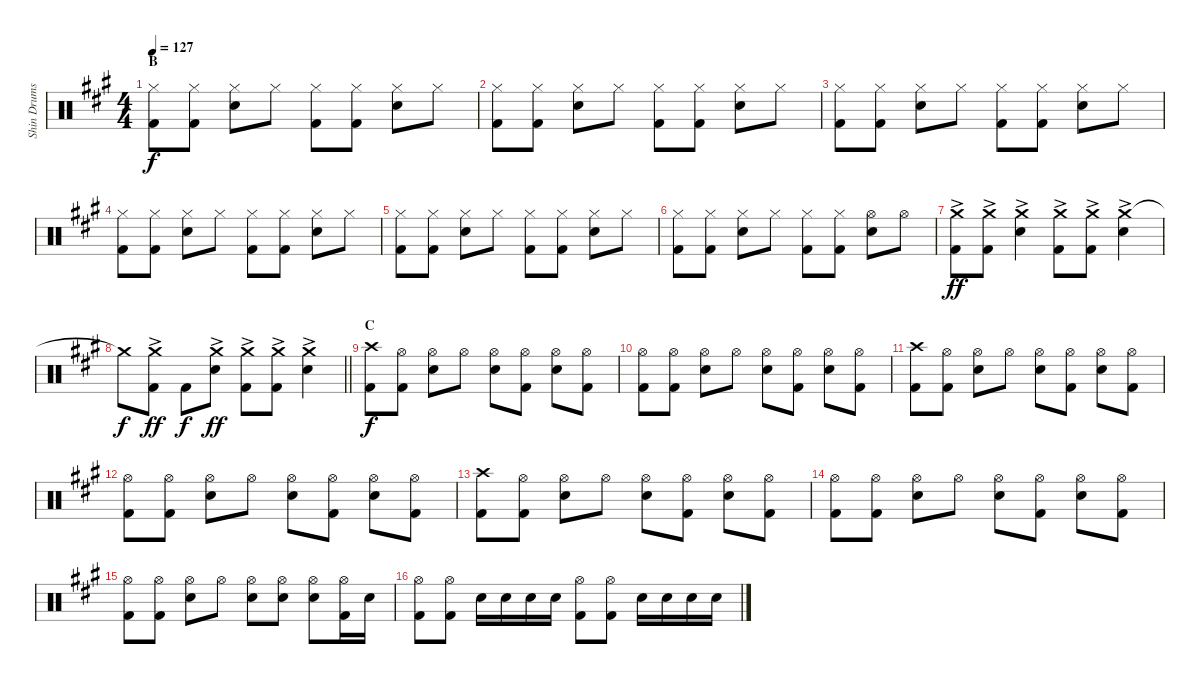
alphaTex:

\track ("Shin Drums" "Shin Drums") {instrument percussion}
\staff {score}
\articulation defaults
\ts (4 4)
\section ("" "B")
\tempo 127
\clef neutral
\ks a
("Hi-Hat (closed)" "Kick (hit) 2").8{dy f} ("Hi-Hat (closed)" "Kick (hit) 2").8 ("Hi-Hat (closed)" "Snare (hit) 2").8 "Hi-Hat (closed)".8 ("Hi-Hat (closed)" "Kick (hit) 2").8 ("Hi-Hat (closed)" "Kick (hit) 2").8 ("Hi-Hat (closed)" "Snare (hit) 2").8 "Hi-Hat (closed)".8 |
("Hi-Hat (closed)" "Kick (hit) 2").8 ("Hi-Hat (closed)" "Kick (hit) 2").8 ("Hi-Hat (closed)" "Snare (hit) 2").8 "Hi-Hat (closed)".8 ("Hi-Hat (closed)" "Kick (hit) 2").8 ("Hi-Hat (closed)" "Kick (hit) 2").8 ("Hi-Hat (closed)" "Snare (hit) 2").8 "Hi-Hat (closed)".8 |
("Hi-Hat (closed)" "Kick (hit) 2").8 ("Hi-Hat (closed)" "Kick (hit) 2").8 ("Hi-Hat (closed)" "Snare (hit) 2").8 "Hi-Hat (closed)".8 ("Hi-Hat (closed)" "Kick (hit) 2").8 ("Hi-Hat (closed)" "Kick (hit) 2").8 ("Hi-Hat (closed)" "Snare (hit) 2").8 "Hi-Hat (closed)".8 |
("Hi-Hat (closed)" "Kick (hit) 2").8 ("Hi-Hat (closed)" "Kick (hit) 2").8 ("Hi-Hat (closed)" "Snare (hit) 2").8 "Hi-Hat (closed)".8 ("Hi-Hat (closed)" "Kick (hit) 2").8 ("Hi-Hat (closed)" "Kick (hit) 2").8 ("Hi-Hat (closed)" "Snare (hit) 2").8 "Hi-Hat (closed)".8 |
("Hi-Hat (closed)" "Kick (hit) 2").8 ("Hi-Hat (closed)" "Kick (hit) 2").8 ("Hi-Hat (closed)" "Snare (hit) 2").8 "Hi-Hat (closed)".8 ("Hi-Hat (closed)" "Kick (hit) 2").8 ("Hi-Hat (closed)" "Kick (hit) 2").8 ("Hi-Hat (closed)" "Snare (hit) 2").8 "Hi-Hat (closed)".8 |
("Hi-Hat (closed)" "Kick (hit) 2").8 ("Hi-Hat (closed)" "Kick (hit) 2").8 ("Hi-Hat (closed)" "Snare (hit) 2").8 "Hi-Hat (closed)".8 ("Hi-Hat (closed)" "Kick (hit) 2").8 ("Hi-Hat (closed)" "Kick (hit) 2").8 ("Hi-Hat (open)" "Snare (hit) 2").8 "Hi-Hat (open)".8 |
("Crash medium (hit)"{ac} "Kick (hit) 2").8{dy ff} ("Crash medium (hit)"{ac} "Kick (hit) 2").8 ("Crash medium (hit)"{ac} "Snare (hit) 2").4 ("Crash medium (hit)"{ac} "Kick (hit) 2").8 ("Crash medium (hit)"{ac} "Kick (hit) 2").8 ("Crash medium (hit)"{ac} "Snare (hit) 2").4 |
\barLineRight lightlight "Crash medium (hit)"{t}.8{dy f}
("Crash medium (hit)"{ac} "Kick (hit) 2").8{dy ff} "Kick (hit) 2".8{dy f} ("Crash medium (hit)"{ac} "Snare (hit) 2").8{dy ff} ("Crash medium (hit)"{ac} "Kick (hit) 2").8 ("Crash medium (hit)"{ac} "Kick (hit) 2").8 ("Crash medium (hit)"{ac} "Snare (hit) 2").4 |
\section ("" "C")
("Crash high (hit)" "Kick (hit) 2").8{dy f} ("Hi-Hat (open)" "Kick (hit) 2").8 ("Hi-Hat (open)" "Snare (hit) 2").8 "Hi-Hat (open)".8 ("Hi-Hat (open)" "Snare (hit) 2").8 ("Hi-Hat (open)" "Kick (hit) 2").8 ("Hi-Hat (open)" "Snare (hit) 2").8 ("Hi-Hat (open)" "Kick (hit) 2").8 |
("Hi-Hat (open)" "Kick (hit) 2").8 ("Hi-Hat (open)" "Kick (hit) 2").8 ("Hi-Hat (open)" "Snare (hit) 2").8 "Hi-Hat (open)".8 ("Hi-Hat (open)" "Snare (hit) 2").8 ("Hi-Hat (open)" "Kick (hit) 2").8 ("Hi-Hat (open)" "Snare (hit) 2").8 ("Hi-Hat (open)" "Kick (hit) 2").8 |
("Crash high (hit)" "Kick (hit) 2").8 ("Hi-Hat (open)" "Kick (hit) 2").8 ("Hi-Hat (open)" "Snare (hit) 2").8 "Hi-Hat (open)".8 ("Hi-Hat (open)" "Snare (hit) 2").8 ("Hi-Hat (open)" "Kick (hit) 2").8 ("Hi-Hat (open)" "Snare (hit) 2").8 ("Hi-Hat (open)" "Kick (hit) 2").8 |
("Hi-Hat (open)" "Kick (hit) 2").8 ("Hi-Hat (open)" "Kick (hit) 2").8 ("Hi-Hat (open)" "Snare (hit) 2").8 "Hi-Hat (open)".8 ("Hi-Hat (open)" "Snare (hit) 2").8 ("Hi-Hat (open)" "Kick (hit) 2").8 ("Hi-Hat (open)" "Snare (hit) 2").8 ("Hi-Hat (open)" "Kick (hit) 2").8 |
("Crash high (hit)" "Kick (hit) 2").8 ("Hi-Hat (open)" "Kick (hit) 2").8 ("Hi-Hat (open)" "Snare (hit) 2").8 "Hi-Hat (open)".8 ("Hi-Hat (open)" "Snare (hit) 2").8 ("Hi-Hat (open)" "Kick (hit) 2").8 ("Hi-Hat (open)" "Snare (hit) 2").8 ("Hi-Hat (open)" "Kick (hit) 2").8 |
("Hi-Hat (open)" "Kick (hit) 2").8 ("Hi-Hat (open)" "Kick (hit) 2").8 ("Hi-Hat (open)" "Snare (hit) 2").8 "Hi-Hat (open)".8 ("Hi-Hat (open)" "Snare (hit) 2").8 ("Hi-Hat (open)" "Kick (hit) 2").8 ("Hi-Hat (open)" "Snare (hit) 2").8 ("Hi-Hat (open)" "Kick (hit) 2").8 |
("Hi-Hat (open)" "Kick (hit) 2").8 ("Hi-Hat (open)" "Kick (hit) 2").8 ("Hi-Hat (open)" "Snare (hit) 2").8 "Hi-Hat (open)".8 ("Hi-Hat (open)" "Snare (hit) 2").8 ("Hi-Hat (open)" "Snare (hit) 2").8 ("Hi-Hat (open)" "Snare (hit) 2").8 ("Hi-Hat (open)" "Kick (hit) 2").16 "Snare (hit) 2".16 |
("Hi-Hat (open)" "Kick (hit) 2").8 ("Hi-Hat (open)" "Kick (hit) 2").8 "Snare (hit) 2".16 "Snare (hit) 2".16 "Snare (hit) 2".16 "Snare (hit) 2".16 ("Hi-Hat (open)" "Kick (hit) 2").8 ("Hi-Hat (open)" "Kick (hit) 2").8 "Snare (hit) 2".16 "Snare (hit) 2".16 "Snare (hit) 2".16 "Snare (hit) 2".16
